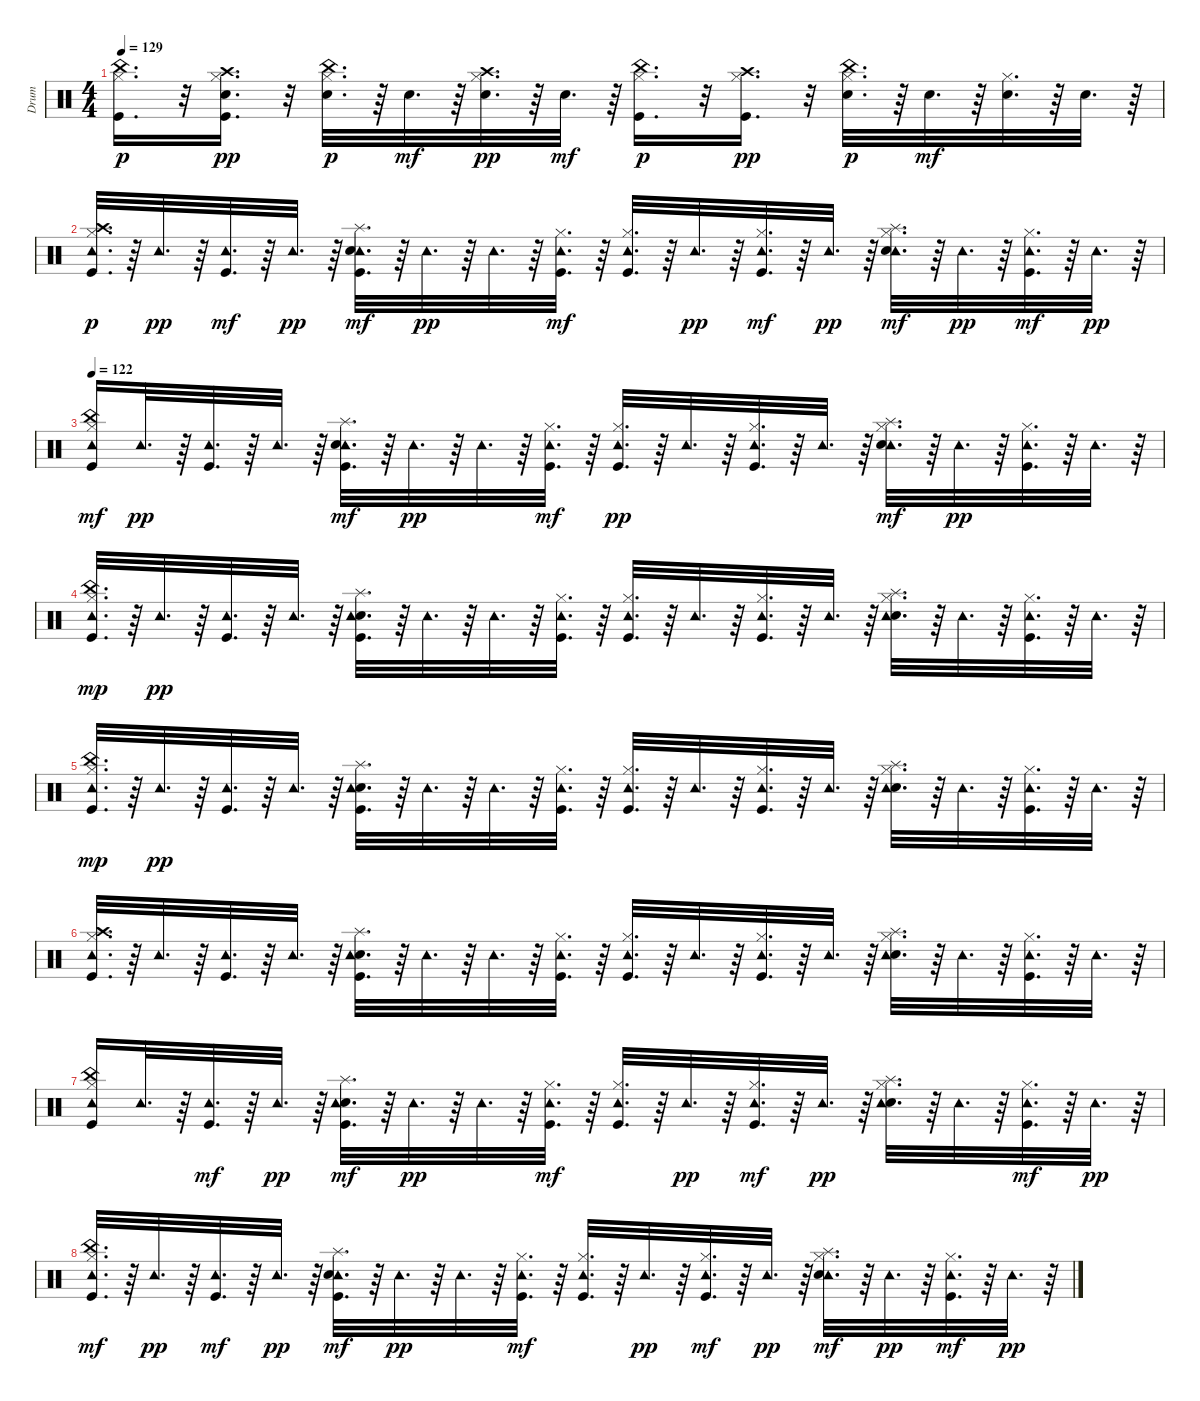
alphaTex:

\track ("Drum" "Drum") {instrument percussion}
\staff {score}
\articulation defaults
\ts (4 4)
\tempo 129
\clef neutral
\ks c
("Kick (hit)" "Hi-Hat (closed)" "China (hit)").16{d dy p} r.32 ("Hi-Hat (closed)" "Kick (hit)" "Snare (hit) 2" "Crash high (hit)").16{d dy pp} r.32 ("Snare (hit) 2" "Hi-Hat (closed)" "China (hit)").32{d dy p} r.64 "Snare (hit) 2".32{d dy mf} r.64 ("Snare (hit) 2" "Hi-Hat (closed)" "Crash high (hit)").32{d dy pp} r.64 "Snare (hit) 2".32{d dy mf} r.64 ("Hi-Hat (closed)" "Kick (hit)" "China (hit)").16{d dy p} r.32 ("Hi-Hat (closed)" "Kick (hit)" "Crash high (hit)").16{d dy pp} r.32 ("Snare (hit) 2" "Hi-Hat (closed)" "China (hit)").32{d dy p} r.64 "Snare (hit) 2".32{d dy mf} r.64 ("Snare (hit) 2" "Hi-Hat (closed)").32{d} r.64 "Snare (hit) 2".32{d} r.64 |
("Tambourine (hit)" "Hi-Hat (closed)" "Kick (hit)" "Crash high (hit)").32{d dy p} r.64 "Tambourine (hit)".32{d dy pp} r.64 ("Tambourine (hit)" "Kick (hit)").32{d dy mf} r.64 "Tambourine (hit)".32{d dy pp} r.64 ("Tambourine (hit)" "Kick (hit)" "Snare (hit) 2" "Splash (hit)").32{d dy mf} r.64 "Tambourine (hit)".32{d dy pp} r.64 "Tambourine (hit)".32{d} r.64 ("Tambourine (hit)" "Hi-Hat (closed)" "Kick (hit)").32{d dy mf} r.64 ("Tambourine (hit)" "Hi-Hat (closed)" "Kick (hit)").32{d} r.64 "Tambourine (hit)".32{d dy pp} r.64 ("Tambourine (hit)" "Hi-Hat (closed)" "Kick (hit)").32{d dy mf} r.64 "Tambourine (hit)".32{d dy pp} r.64 ("Tambourine (hit)" "Hi-Hat (closed)" "Snare (hit) 2" "Splash (hit)").32{d dy mf} r.64 "Tambourine (hit)".32{d dy pp} r.64 ("Tambourine (hit)" "Hi-Hat (closed)" "Kick (hit)").32{d dy mf} r.64 "Tambourine (hit)".32{d dy pp} r.64 |
\tempo 122
("Tambourine (hit)" "Hi-Hat (closed)" "China (hit)" "Kick (hit)").16{dy mf} "Tambourine (hit)".32{d dy pp} r.64 ("Kick (hit)" "Tambourine (hit)").32{d} r.64 "Tambourine (hit)".32{d} r.64 ("Kick (hit)" "Tambourine (hit)" "Snare (hit) 2" "Splash (hit)").32{d dy mf} r.64 "Tambourine (hit)".32{d dy pp} r.64 "Tambourine (hit)".32{d} r.64 ("Hi-Hat (closed)" "Tambourine (hit)" "Kick (hit)").32{d dy mf} r.64 ("Kick (hit)" "Hi-Hat (closed)" "Tambourine (hit)").32{d dy pp} r.64 "Tambourine (hit)".32{d} r.64 ("Kick (hit)" "Hi-Hat (closed)" "Tambourine (hit)").32{d} r.64 "Tambourine (hit)".32{d} r.64 ("Tambourine (hit)" "Hi-Hat (closed)" "Snare (hit) 2" "Splash (hit)").32{d dy mf} r.64 "Tambourine (hit)".32{d dy pp} r.64 ("Kick (hit)" "Hi-Hat (closed)" "Tambourine (hit)").32{d} r.64 "Tambourine (hit)".32{d} r.64 |
("Kick (hit)" "Hi-Hat (closed)" "Tambourine (hit)" "China (hit)").32{d dy mp} r.64 "Tambourine (hit)".32{d dy pp} r.64 ("Kick (hit)" "Tambourine (hit)").32{d} r.64 "Tambourine (hit)".32{d} r.64 ("Splash (hit)" "Snare (hit) 2" "Kick (hit)" "Tambourine (hit)").32{d} r.64 "Tambourine (hit)".32{d} r.64 "Tambourine (hit)".32{d} r.64 ("Kick (hit)" "Hi-Hat (closed)" "Tambourine (hit)").32{d} r.64 ("Kick (hit)" "Hi-Hat (closed)" "Tambourine (hit)").32{d} r.64 "Tambourine (hit)".32{d} r.64 ("Kick (hit)" "Hi-Hat (closed)" "Tambourine (hit)").32{d} r.64 "Tambourine (hit)".32{d} r.64 ("Splash (hit)" "Snare (hit) 2" "Hi-Hat (closed)" "Tambourine (hit)").32{d} r.64 "Tambourine (hit)".32{d} r.64 ("Kick (hit)" "Hi-Hat (closed)" "Tambourine (hit)").32{d} r.64 "Tambourine (hit)".32{d} r.64 |
("Kick (hit)" "Hi-Hat (closed)" "Tambourine (hit)" "China (hit)").32{d dy mp} r.64 "Tambourine (hit)".32{d dy pp} r.64 ("Kick (hit)" "Tambourine (hit)").32{d} r.64 "Tambourine (hit)".32{d} r.64 ("Splash (hit)" "Snare (hit) 2" "Kick (hit)" "Tambourine (hit)").32{d} r.64 "Tambourine (hit)".32{d} r.64 "Tambourine (hit)".32{d} r.64 ("Kick (hit)" "Hi-Hat (closed)" "Tambourine (hit)").32{d} r.64 ("Kick (hit)" "Hi-Hat (closed)" "Tambourine (hit)").32{d} r.64 "Tambourine (hit)".32{d} r.64 ("Kick (hit)" "Hi-Hat (closed)" "Tambourine (hit)").32{d} r.64 "Tambourine (hit)".32{d} r.64 ("Splash (hit)" "Snare (hit) 2" "Hi-Hat (closed)" "Tambourine (hit)").32{d} r.64 "Tambourine (hit)".32{d} r.64 ("Kick (hit)" "Hi-Hat (closed)" "Tambourine (hit)").32{d} r.64 "Tambourine (hit)".32{d} r.64 |
("Crash high (hit)" "Kick (hit)" "Hi-Hat (closed)" "Tambourine (hit)").32{d} r.64 "Tambourine (hit)".32{d} r.64 ("Kick (hit)" "Tambourine (hit)").32{d} r.64 "Tambourine (hit)".32{d} r.64 ("Splash (hit)" "Snare (hit) 2" "Kick (hit)" "Tambourine (hit)").32{d} r.64 "Tambourine (hit)".32{d} r.64 "Tambourine (hit)".32{d} r.64 ("Kick (hit)" "Hi-Hat (closed)" "Tambourine (hit)").32{d} r.64 ("Kick (hit)" "Hi-Hat (closed)" "Tambourine (hit)").32{d} r.64 "Tambourine (hit)".32{d} r.64 ("Kick (hit)" "Hi-Hat (closed)" "Tambourine (hit)").32{d} r.64 "Tambourine (hit)".32{d} r.64 ("Splash (hit)" "Snare (hit) 2" "Hi-Hat (closed)" "Tambourine (hit)").32{d} r.64 "Tambourine (hit)".32{d} r.64 ("Kick (hit)" "Hi-Hat (closed)" "Tambourine (hit)").32{d} r.64 "Tambourine (hit)".32{d} r.64 |
("Kick (hit)" "China (hit)" "Hi-Hat (closed)" "Tambourine (hit)").16 "Tambourine (hit)".32{d} r.64 ("Tambourine (hit)" "Kick (hit)").32{d dy mf} r.64 "Tambourine (hit)".32{d dy pp} r.64 ("Splash (hit)" "Snare (hit) 2" "Tambourine (hit)" "Kick (hit)").32{d dy mf} r.64 "Tambourine (hit)".32{d dy pp} r.64 "Tambourine (hit)".32{d} r.64 ("Kick (hit)" "Tambourine (hit)" "Hi-Hat (closed)").32{d dy mf} r.64 ("Tambourine (hit)" "Hi-Hat (closed)" "Kick (hit)").32{d} r.64 "Tambourine (hit)".32{d dy pp} r.64 ("Tambourine (hit)" "Hi-Hat (closed)" "Kick (hit)").32{d dy mf} r.64 "Tambourine (hit)".32{d dy pp} r.64 ("Splash (hit)" "Snare (hit) 2" "Hi-Hat (closed)" "Tambourine (hit)").32{d} r.64 "Tambourine (hit)".32{d} r.64 ("Tambourine (hit)" "Hi-Hat (closed)" "Kick (hit)").32{d dy mf} r.64 "Tambourine (hit)".32{d dy pp} r.64 |
("China (hit)" "Tambourine (hit)" "Hi-Hat (closed)" "Kick (hit)").32{d dy mf} r.64 "Tambourine (hit)".32{d dy pp} r.64 ("Tambourine (hit)" "Kick (hit)").32{d dy mf} r.64 "Tambourine (hit)".32{d dy pp} r.64 ("Tambourine (hit)" "Kick (hit)" "Snare (hit) 2" "Splash (hit)").32{d dy mf} r.64 "Tambourine (hit)".32{d dy pp} r.64 "Tambourine (hit)".32{d} r.64 ("Tambourine (hit)" "Hi-Hat (closed)" "Kick (hit)").32{d dy mf} r.64 ("Tambourine (hit)" "Hi-Hat (closed)" "Kick (hit)").32{d} r.64 "Tambourine (hit)".32{d dy pp} r.64 ("Tambourine (hit)" "Hi-Hat (closed)" "Kick (hit)").32{d dy mf} r.64 "Tambourine (hit)".32{d dy pp} r.64 ("Tambourine (hit)" "Hi-Hat (closed)" "Snare (hit) 2" "Splash (hit)").32{d dy mf} r.64 "Tambourine (hit)".32{d dy pp} r.64 ("Tambourine (hit)" "Hi-Hat (closed)" "Kick (hit)").32{d dy mf} r.64 "Tambourine (hit)".32{d dy pp} r.64
